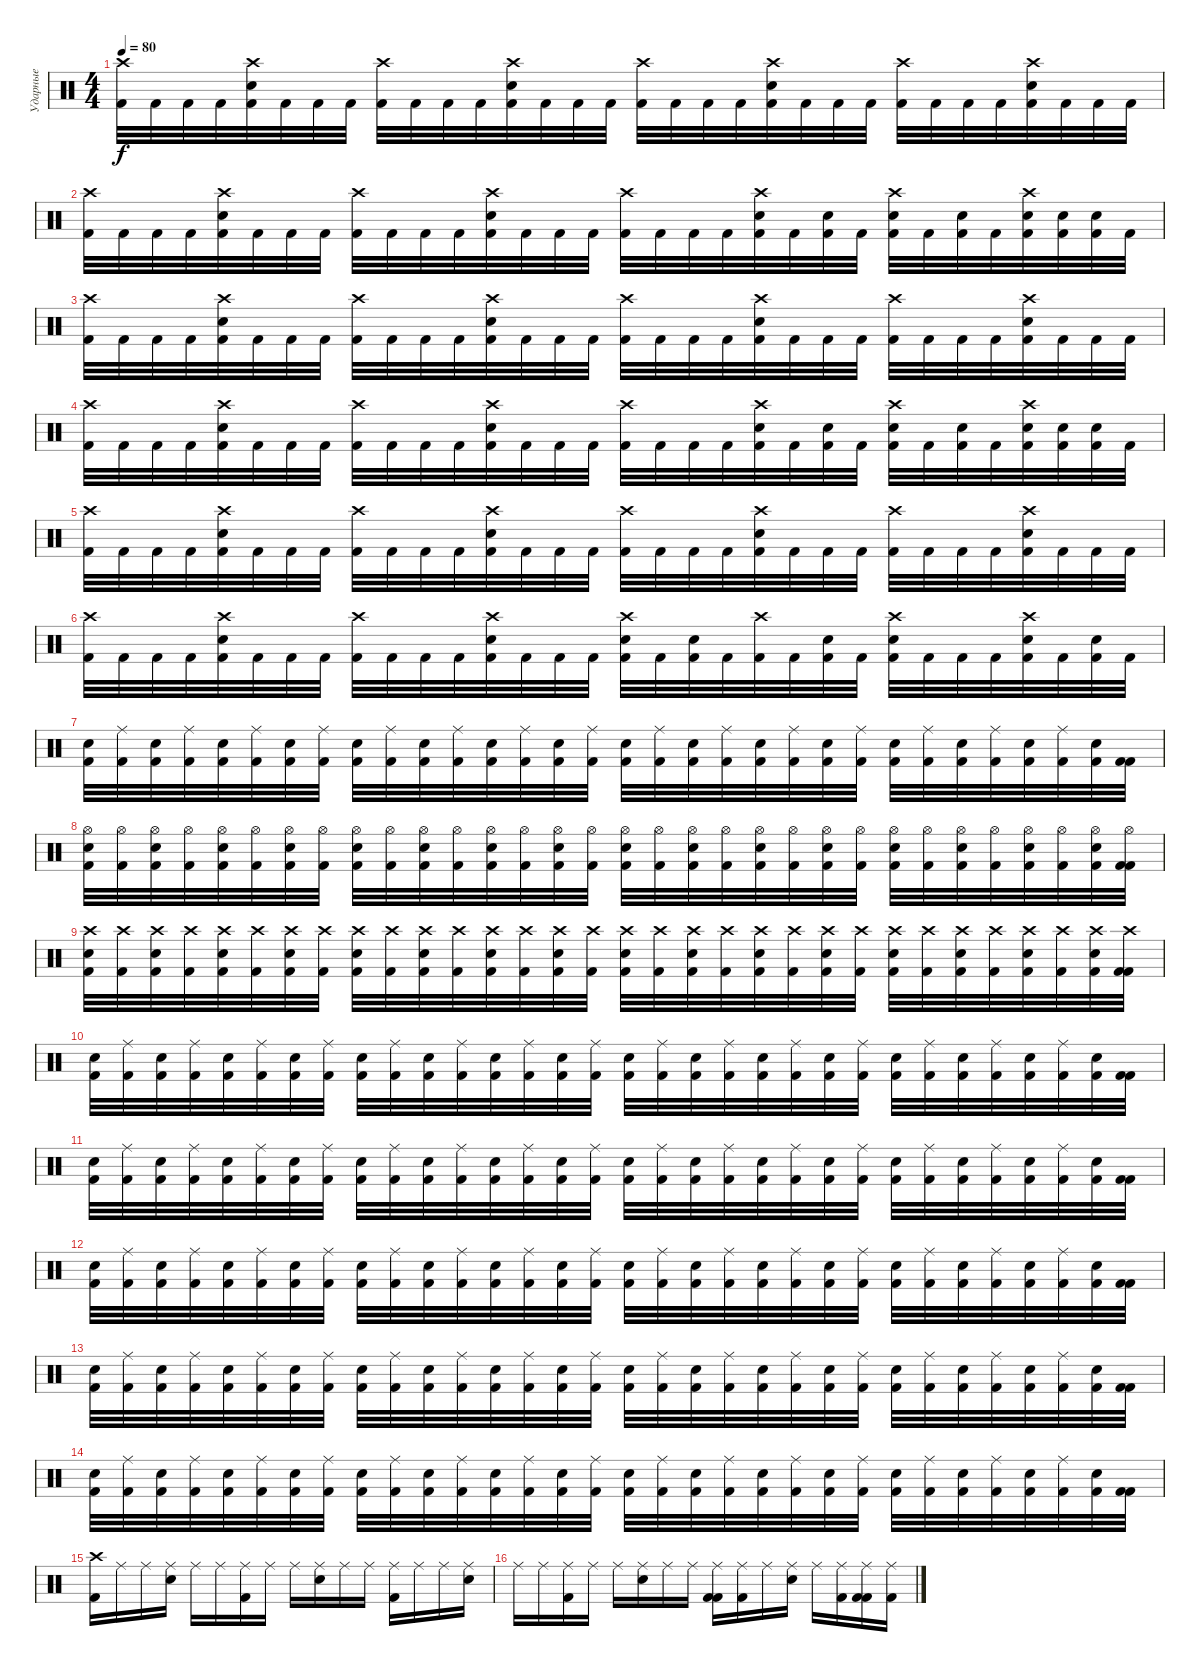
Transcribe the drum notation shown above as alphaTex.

\track ("Ударные" "Ударные") {instrument percussion}
\staff {score}
\articulation defaults
\ts (4 4)
\tempo 80
\clef neutral
\ks c
("Crash high (hit)" "Kick (hit) 2").32{dy f} "Kick (hit) 2".32 "Kick (hit) 2".32 "Kick (hit) 2".32 ("Crash high (hit)" "Snare (hit) 2" "Kick (hit) 2").32 "Kick (hit) 2".32 "Kick (hit) 2".32 "Kick (hit) 2".32 ("Crash high (hit)" "Kick (hit) 2").32 "Kick (hit) 2".32 "Kick (hit) 2".32 "Kick (hit) 2".32 ("Crash high (hit)" "Snare (hit) 2" "Kick (hit) 2").32 "Kick (hit) 2".32 "Kick (hit) 2".32 "Kick (hit) 2".32 ("Crash high (hit)" "Kick (hit) 2").32 "Kick (hit) 2".32 "Kick (hit) 2".32 "Kick (hit) 2".32 ("Crash high (hit)" "Snare (hit) 2" "Kick (hit) 2").32 "Kick (hit) 2".32 "Kick (hit) 2".32 "Kick (hit) 2".32 ("Crash high (hit)" "Kick (hit) 2").32 "Kick (hit) 2".32 "Kick (hit) 2".32 "Kick (hit) 2".32 ("Crash high (hit)" "Snare (hit) 2" "Kick (hit) 2").32 "Kick (hit) 2".32 "Kick (hit) 2".32 "Kick (hit) 2".32 |
("Crash high (hit)" "Kick (hit) 2").32 "Kick (hit) 2".32 "Kick (hit) 2".32 "Kick (hit) 2".32 ("Crash high (hit)" "Snare (hit) 2" "Kick (hit) 2").32 "Kick (hit) 2".32 "Kick (hit) 2".32 "Kick (hit) 2".32 ("Crash high (hit)" "Kick (hit) 2").32 "Kick (hit) 2".32 "Kick (hit) 2".32 "Kick (hit) 2".32 ("Crash high (hit)" "Snare (hit) 2" "Kick (hit) 2").32 "Kick (hit) 2".32 "Kick (hit) 2".32 "Kick (hit) 2".32 ("Crash high (hit)" "Kick (hit) 2").32 "Kick (hit) 2".32 "Kick (hit) 2".32 "Kick (hit) 2".32 ("Crash high (hit)" "Snare (hit) 2" "Kick (hit) 2").32 "Kick (hit) 2".32 ("Snare (hit) 2" "Kick (hit) 2").32 "Kick (hit) 2".32 ("Crash high (hit)" "Snare (hit) 2" "Kick (hit) 2").32 "Kick (hit) 2".32 ("Snare (hit) 2" "Kick (hit) 2").32 "Kick (hit) 2".32 ("Crash high (hit)" "Snare (hit) 2" "Kick (hit) 2").32 ("Snare (hit) 2" "Kick (hit) 2").32 ("Snare (hit) 2" "Kick (hit) 2").32 "Kick (hit) 2".32 |
("Crash high (hit)" "Kick (hit) 2").32 "Kick (hit) 2".32 "Kick (hit) 2".32 "Kick (hit) 2".32 ("Crash high (hit)" "Snare (hit) 2" "Kick (hit) 2").32 "Kick (hit) 2".32 "Kick (hit) 2".32 "Kick (hit) 2".32 ("Crash high (hit)" "Kick (hit) 2").32 "Kick (hit) 2".32 "Kick (hit) 2".32 "Kick (hit) 2".32 ("Crash high (hit)" "Snare (hit) 2" "Kick (hit) 2").32 "Kick (hit) 2".32 "Kick (hit) 2".32 "Kick (hit) 2".32 ("Crash high (hit)" "Kick (hit) 2").32 "Kick (hit) 2".32 "Kick (hit) 2".32 "Kick (hit) 2".32 ("Crash high (hit)" "Snare (hit) 2" "Kick (hit) 2").32 "Kick (hit) 2".32 "Kick (hit) 2".32 "Kick (hit) 2".32 ("Crash high (hit)" "Kick (hit) 2").32 "Kick (hit) 2".32 "Kick (hit) 2".32 "Kick (hit) 2".32 ("Crash high (hit)" "Snare (hit) 2" "Kick (hit) 2").32 "Kick (hit) 2".32 "Kick (hit) 2".32 "Kick (hit) 2".32 |
("Crash high (hit)" "Kick (hit) 2").32 "Kick (hit) 2".32 "Kick (hit) 2".32 "Kick (hit) 2".32 ("Crash high (hit)" "Snare (hit) 2" "Kick (hit) 2").32 "Kick (hit) 2".32 "Kick (hit) 2".32 "Kick (hit) 2".32 ("Crash high (hit)" "Kick (hit) 2").32 "Kick (hit) 2".32 "Kick (hit) 2".32 "Kick (hit) 2".32 ("Crash high (hit)" "Snare (hit) 2" "Kick (hit) 2").32 "Kick (hit) 2".32 "Kick (hit) 2".32 "Kick (hit) 2".32 ("Crash high (hit)" "Kick (hit) 2").32 "Kick (hit) 2".32 "Kick (hit) 2".32 "Kick (hit) 2".32 ("Crash high (hit)" "Snare (hit) 2" "Kick (hit) 2").32 "Kick (hit) 2".32 ("Snare (hit) 2" "Kick (hit) 2").32 "Kick (hit) 2".32 ("Crash high (hit)" "Snare (hit) 2" "Kick (hit) 2").32 "Kick (hit) 2".32 ("Snare (hit) 2" "Kick (hit) 2").32 "Kick (hit) 2".32 ("Crash high (hit)" "Snare (hit) 2" "Kick (hit) 2").32 ("Snare (hit) 2" "Kick (hit) 2").32 ("Snare (hit) 2" "Kick (hit) 2").32 "Kick (hit) 2".32 |
("Crash high (hit)" "Kick (hit) 2").32 "Kick (hit) 2".32 "Kick (hit) 2".32 "Kick (hit) 2".32 ("Crash high (hit)" "Snare (hit) 2" "Kick (hit) 2").32 "Kick (hit) 2".32 "Kick (hit) 2".32 "Kick (hit) 2".32 ("Crash high (hit)" "Kick (hit) 2").32 "Kick (hit) 2".32 "Kick (hit) 2".32 "Kick (hit) 2".32 ("Crash high (hit)" "Snare (hit) 2" "Kick (hit) 2").32 "Kick (hit) 2".32 "Kick (hit) 2".32 "Kick (hit) 2".32 ("Crash high (hit)" "Kick (hit) 2").32 "Kick (hit) 2".32 "Kick (hit) 2".32 "Kick (hit) 2".32 ("Crash high (hit)" "Snare (hit) 2" "Kick (hit) 2").32 "Kick (hit) 2".32 "Kick (hit) 2".32 "Kick (hit) 2".32 ("Crash high (hit)" "Kick (hit) 2").32 "Kick (hit) 2".32 "Kick (hit) 2".32 "Kick (hit) 2".32 ("Crash high (hit)" "Snare (hit) 2" "Kick (hit) 2").32 "Kick (hit) 2".32 "Kick (hit) 2".32 "Kick (hit) 2".32 |
("Crash high (hit)" "Kick (hit) 2").32 "Kick (hit) 2".32 "Kick (hit) 2".32 "Kick (hit) 2".32 ("Crash high (hit)" "Snare (hit) 2" "Kick (hit) 2").32 "Kick (hit) 2".32 "Kick (hit) 2".32 "Kick (hit) 2".32 ("Crash high (hit)" "Kick (hit) 2").32 "Kick (hit) 2".32 "Kick (hit) 2".32 "Kick (hit) 2".32 ("Crash high (hit)" "Snare (hit) 2" "Kick (hit) 2").32 "Kick (hit) 2".32 "Kick (hit) 2".32 "Kick (hit) 2".32 ("Crash high (hit)" "Snare (hit) 2" "Kick (hit) 2").32 "Kick (hit) 2".32 ("Snare (hit) 2" "Kick (hit) 2").32 "Kick (hit) 2".32 ("Crash high (hit)" "Kick (hit) 2").32 "Kick (hit) 2".32 ("Snare (hit) 2" "Kick (hit) 2").32 "Kick (hit) 2".32 ("Crash high (hit)" "Snare (hit) 2" "Kick (hit) 2").32 "Kick (hit) 2".32 "Kick (hit) 2".32 "Kick (hit) 2".32 ("Crash high (hit)" "Snare (hit) 2" "Kick (hit) 2").32 "Kick (hit) 2".32 ("Snare (hit) 2" "Kick (hit) 2").32 "Kick (hit) 2".32 |
("Electric Snare (hit)" "Kick (hit) 2").32 ("Ride (middle)" "Kick (hit) 2").32 ("Electric Snare (hit)" "Kick (hit) 2").32 ("Ride (middle)" "Kick (hit) 2").32 ("Electric Snare (hit)" "Kick (hit) 2").32 ("Ride (middle)" "Kick (hit) 2").32 ("Electric Snare (hit)" "Kick (hit) 2").32 ("Ride (middle)" "Kick (hit) 2").32 ("Electric Snare (hit)" "Kick (hit) 2").32 ("Ride (middle)" "Kick (hit) 2").32 ("Electric Snare (hit)" "Kick (hit) 2").32 ("Ride (middle)" "Kick (hit) 2").32 ("Electric Snare (hit)" "Kick (hit) 2").32 ("Ride (middle)" "Kick (hit) 2").32 ("Electric Snare (hit)" "Kick (hit) 2").32 ("Ride (middle)" "Kick (hit) 2").32 ("Electric Snare (hit)" "Kick (hit) 2").32 ("Ride (middle)" "Kick (hit) 2").32 ("Electric Snare (hit)" "Kick (hit) 2").32 ("Ride (middle)" "Kick (hit) 2").32 ("Electric Snare (hit)" "Kick (hit) 2").32 ("Ride (middle)" "Kick (hit) 2").32 ("Electric Snare (hit)" "Kick (hit) 2").32 ("Ride (middle)" "Kick (hit) 2").32 ("Electric Snare (hit)" "Kick (hit) 2").32 ("Ride (middle)" "Kick (hit) 2").32 ("Electric Snare (hit)" "Kick (hit) 2").32 ("Ride (middle)" "Kick (hit) 2").32 ("Electric Snare (hit)" "Kick (hit) 2").32 ("Ride (middle)" "Kick (hit) 2").32 ("Electric Snare (hit)" "Kick (hit) 2").32 ("Kick (hit) 2" "Kick (hit) 2").32 |
("Hi-Hat (open)" "Electric Snare (hit)" "Kick (hit) 2").32 ("Hi-Hat (open)" "Kick (hit) 2").32 ("Hi-Hat (open)" "Electric Snare (hit)" "Kick (hit) 2").32 ("Hi-Hat (open)" "Kick (hit) 2").32 ("Hi-Hat (open)" "Electric Snare (hit)" "Kick (hit) 2").32 ("Hi-Hat (open)" "Kick (hit) 2").32 ("Hi-Hat (open)" "Electric Snare (hit)" "Kick (hit) 2").32 ("Hi-Hat (open)" "Kick (hit) 2").32 ("Hi-Hat (open)" "Electric Snare (hit)" "Kick (hit) 2").32 ("Hi-Hat (open)" "Kick (hit) 2").32 ("Hi-Hat (open)" "Electric Snare (hit)" "Kick (hit) 2").32 ("Hi-Hat (open)" "Kick (hit) 2").32 ("Hi-Hat (open)" "Electric Snare (hit)" "Kick (hit) 2").32 ("Hi-Hat (open)" "Kick (hit) 2").32 ("Hi-Hat (open)" "Electric Snare (hit)" "Kick (hit) 2").32 ("Hi-Hat (open)" "Kick (hit) 2").32 ("Hi-Hat (open)" "Electric Snare (hit)" "Kick (hit) 2").32 ("Hi-Hat (open)" "Kick (hit) 2").32 ("Hi-Hat (open)" "Electric Snare (hit)" "Kick (hit) 2").32 ("Hi-Hat (open)" "Kick (hit) 2").32 ("Hi-Hat (open)" "Electric Snare (hit)" "Kick (hit) 2").32 ("Hi-Hat (open)" "Kick (hit) 2").32 ("Hi-Hat (open)" "Electric Snare (hit)" "Kick (hit) 2").32 ("Hi-Hat (open)" "Kick (hit) 2").32 ("Hi-Hat (open)" "Electric Snare (hit)" "Kick (hit) 2").32 ("Hi-Hat (open)" "Kick (hit) 2").32 ("Hi-Hat (open)" "Electric Snare (hit)" "Kick (hit) 2").32 ("Hi-Hat (open)" "Kick (hit) 2").32 ("Hi-Hat (open)" "Electric Snare (hit)" "Kick (hit) 2").32 ("Hi-Hat (open)" "Kick (hit) 2").32 ("Hi-Hat (open)" "Electric Snare (hit)" "Kick (hit) 2").32 ("Hi-Hat (open)" "Kick (hit) 2" "Kick (hit) 2").32 |
("Crash high (hit)" "Electric Snare (hit)" "Kick (hit) 2").32 ("Crash high (hit)" "Kick (hit) 2").32 ("Crash high (hit)" "Electric Snare (hit)" "Kick (hit) 2").32 ("Crash high (hit)" "Kick (hit) 2").32 ("Crash high (hit)" "Electric Snare (hit)" "Kick (hit) 2").32 ("Crash high (hit)" "Kick (hit) 2").32 ("Crash high (hit)" "Electric Snare (hit)" "Kick (hit) 2").32 ("Crash high (hit)" "Kick (hit) 2").32 ("Crash high (hit)" "Electric Snare (hit)" "Kick (hit) 2").32 ("Crash high (hit)" "Kick (hit) 2").32 ("Crash high (hit)" "Electric Snare (hit)" "Kick (hit) 2").32 ("Crash high (hit)" "Kick (hit) 2").32 ("Crash high (hit)" "Electric Snare (hit)" "Kick (hit) 2").32 ("Crash high (hit)" "Kick (hit) 2").32 ("Crash high (hit)" "Electric Snare (hit)" "Kick (hit) 2").32 ("Crash high (hit)" "Kick (hit) 2").32 ("Crash high (hit)" "Electric Snare (hit)" "Kick (hit) 2").32 ("Crash high (hit)" "Kick (hit) 2").32 ("Crash high (hit)" "Electric Snare (hit)" "Kick (hit) 2").32 ("Crash high (hit)" "Kick (hit) 2").32 ("Crash high (hit)" "Electric Snare (hit)" "Kick (hit) 2").32 ("Crash high (hit)" "Kick (hit) 2").32 ("Crash high (hit)" "Electric Snare (hit)" "Kick (hit) 2").32 ("Crash high (hit)" "Kick (hit) 2").32 ("Crash high (hit)" "Electric Snare (hit)" "Kick (hit) 2").32 ("Crash high (hit)" "Kick (hit) 2").32 ("Crash high (hit)" "Electric Snare (hit)" "Kick (hit) 2").32 ("Crash high (hit)" "Kick (hit) 2").32 ("Crash high (hit)" "Electric Snare (hit)" "Kick (hit) 2").32 ("Crash high (hit)" "Kick (hit) 2").32 ("Crash high (hit)" "Electric Snare (hit)" "Kick (hit) 2").32 ("Crash high (hit)" "Kick (hit) 2" "Kick (hit) 2").32 |
("Electric Snare (hit)" "Kick (hit) 2").32 ("Ride (middle)" "Kick (hit) 2").32 ("Electric Snare (hit)" "Kick (hit) 2").32 ("Ride (middle)" "Kick (hit) 2").32 ("Electric Snare (hit)" "Kick (hit) 2").32 ("Ride (middle)" "Kick (hit) 2").32 ("Electric Snare (hit)" "Kick (hit) 2").32 ("Ride (middle)" "Kick (hit) 2").32 ("Electric Snare (hit)" "Kick (hit) 2").32 ("Ride (middle)" "Kick (hit) 2").32 ("Electric Snare (hit)" "Kick (hit) 2").32 ("Ride (middle)" "Kick (hit) 2").32 ("Electric Snare (hit)" "Kick (hit) 2").32 ("Ride (middle)" "Kick (hit) 2").32 ("Electric Snare (hit)" "Kick (hit) 2").32 ("Ride (middle)" "Kick (hit) 2").32 ("Electric Snare (hit)" "Kick (hit) 2").32 ("Ride (middle)" "Kick (hit) 2").32 ("Electric Snare (hit)" "Kick (hit) 2").32 ("Ride (middle)" "Kick (hit) 2").32 ("Electric Snare (hit)" "Kick (hit) 2").32 ("Ride (middle)" "Kick (hit) 2").32 ("Electric Snare (hit)" "Kick (hit) 2").32 ("Ride (middle)" "Kick (hit) 2").32 ("Electric Snare (hit)" "Kick (hit) 2").32 ("Ride (middle)" "Kick (hit) 2").32 ("Electric Snare (hit)" "Kick (hit) 2").32 ("Ride (middle)" "Kick (hit) 2").32 ("Electric Snare (hit)" "Kick (hit) 2").32 ("Ride (middle)" "Kick (hit) 2").32 ("Electric Snare (hit)" "Kick (hit) 2").32 ("Kick (hit) 2" "Kick (hit) 2").32 |
("Electric Snare (hit)" "Kick (hit) 2").32 ("Ride (middle)" "Kick (hit) 2").32 ("Electric Snare (hit)" "Kick (hit) 2").32 ("Ride (middle)" "Kick (hit) 2").32 ("Electric Snare (hit)" "Kick (hit) 2").32 ("Ride (middle)" "Kick (hit) 2").32 ("Electric Snare (hit)" "Kick (hit) 2").32 ("Ride (middle)" "Kick (hit) 2").32 ("Electric Snare (hit)" "Kick (hit) 2").32 ("Ride (middle)" "Kick (hit) 2").32 ("Electric Snare (hit)" "Kick (hit) 2").32 ("Ride (middle)" "Kick (hit) 2").32 ("Electric Snare (hit)" "Kick (hit) 2").32 ("Ride (middle)" "Kick (hit) 2").32 ("Electric Snare (hit)" "Kick (hit) 2").32 ("Ride (middle)" "Kick (hit) 2").32 ("Electric Snare (hit)" "Kick (hit) 2").32 ("Ride (middle)" "Kick (hit) 2").32 ("Electric Snare (hit)" "Kick (hit) 2").32 ("Ride (middle)" "Kick (hit) 2").32 ("Electric Snare (hit)" "Kick (hit) 2").32 ("Ride (middle)" "Kick (hit) 2").32 ("Electric Snare (hit)" "Kick (hit) 2").32 ("Ride (middle)" "Kick (hit) 2").32 ("Electric Snare (hit)" "Kick (hit) 2").32 ("Ride (middle)" "Kick (hit) 2").32 ("Electric Snare (hit)" "Kick (hit) 2").32 ("Ride (middle)" "Kick (hit) 2").32 ("Electric Snare (hit)" "Kick (hit) 2").32 ("Ride (middle)" "Kick (hit) 2").32 ("Electric Snare (hit)" "Kick (hit) 2").32 ("Kick (hit) 2" "Kick (hit) 2").32 |
("Electric Snare (hit)" "Kick (hit) 2").32 ("Ride (middle)" "Kick (hit) 2").32 ("Electric Snare (hit)" "Kick (hit) 2").32 ("Ride (middle)" "Kick (hit) 2").32 ("Electric Snare (hit)" "Kick (hit) 2").32 ("Ride (middle)" "Kick (hit) 2").32 ("Electric Snare (hit)" "Kick (hit) 2").32 ("Ride (middle)" "Kick (hit) 2").32 ("Electric Snare (hit)" "Kick (hit) 2").32 ("Ride (middle)" "Kick (hit) 2").32 ("Electric Snare (hit)" "Kick (hit) 2").32 ("Ride (middle)" "Kick (hit) 2").32 ("Electric Snare (hit)" "Kick (hit) 2").32 ("Ride (middle)" "Kick (hit) 2").32 ("Electric Snare (hit)" "Kick (hit) 2").32 ("Ride (middle)" "Kick (hit) 2").32 ("Electric Snare (hit)" "Kick (hit) 2").32 ("Ride (middle)" "Kick (hit) 2").32 ("Electric Snare (hit)" "Kick (hit) 2").32 ("Ride (middle)" "Kick (hit) 2").32 ("Electric Snare (hit)" "Kick (hit) 2").32 ("Ride (middle)" "Kick (hit) 2").32 ("Electric Snare (hit)" "Kick (hit) 2").32 ("Ride (middle)" "Kick (hit) 2").32 ("Electric Snare (hit)" "Kick (hit) 2").32 ("Ride (middle)" "Kick (hit) 2").32 ("Electric Snare (hit)" "Kick (hit) 2").32 ("Ride (middle)" "Kick (hit) 2").32 ("Electric Snare (hit)" "Kick (hit) 2").32 ("Ride (middle)" "Kick (hit) 2").32 ("Electric Snare (hit)" "Kick (hit) 2").32 ("Kick (hit) 2" "Kick (hit) 2").32 |
("Electric Snare (hit)" "Kick (hit) 2").32 ("Ride (middle)" "Kick (hit) 2").32 ("Electric Snare (hit)" "Kick (hit) 2").32 ("Ride (middle)" "Kick (hit) 2").32 ("Electric Snare (hit)" "Kick (hit) 2").32 ("Ride (middle)" "Kick (hit) 2").32 ("Electric Snare (hit)" "Kick (hit) 2").32 ("Ride (middle)" "Kick (hit) 2").32 ("Electric Snare (hit)" "Kick (hit) 2").32 ("Ride (middle)" "Kick (hit) 2").32 ("Electric Snare (hit)" "Kick (hit) 2").32 ("Ride (middle)" "Kick (hit) 2").32 ("Electric Snare (hit)" "Kick (hit) 2").32 ("Ride (middle)" "Kick (hit) 2").32 ("Electric Snare (hit)" "Kick (hit) 2").32 ("Ride (middle)" "Kick (hit) 2").32 ("Electric Snare (hit)" "Kick (hit) 2").32 ("Ride (middle)" "Kick (hit) 2").32 ("Electric Snare (hit)" "Kick (hit) 2").32 ("Ride (middle)" "Kick (hit) 2").32 ("Electric Snare (hit)" "Kick (hit) 2").32 ("Ride (middle)" "Kick (hit) 2").32 ("Electric Snare (hit)" "Kick (hit) 2").32 ("Ride (middle)" "Kick (hit) 2").32 ("Electric Snare (hit)" "Kick (hit) 2").32 ("Ride (middle)" "Kick (hit) 2").32 ("Electric Snare (hit)" "Kick (hit) 2").32 ("Ride (middle)" "Kick (hit) 2").32 ("Electric Snare (hit)" "Kick (hit) 2").32 ("Ride (middle)" "Kick (hit) 2").32 ("Electric Snare (hit)" "Kick (hit) 2").32 ("Kick (hit) 2" "Kick (hit) 2").32 |
("Electric Snare (hit)" "Kick (hit) 2").32 ("Ride (middle)" "Kick (hit) 2").32 ("Electric Snare (hit)" "Kick (hit) 2").32 ("Ride (middle)" "Kick (hit) 2").32 ("Electric Snare (hit)" "Kick (hit) 2").32 ("Ride (middle)" "Kick (hit) 2").32 ("Electric Snare (hit)" "Kick (hit) 2").32 ("Ride (middle)" "Kick (hit) 2").32 ("Electric Snare (hit)" "Kick (hit) 2").32 ("Ride (middle)" "Kick (hit) 2").32 ("Electric Snare (hit)" "Kick (hit) 2").32 ("Ride (middle)" "Kick (hit) 2").32 ("Electric Snare (hit)" "Kick (hit) 2").32 ("Ride (middle)" "Kick (hit) 2").32 ("Electric Snare (hit)" "Kick (hit) 2").32 ("Ride (middle)" "Kick (hit) 2").32 ("Electric Snare (hit)" "Kick (hit) 2").32 ("Ride (middle)" "Kick (hit) 2").32 ("Electric Snare (hit)" "Kick (hit) 2").32 ("Ride (middle)" "Kick (hit) 2").32 ("Electric Snare (hit)" "Kick (hit) 2").32 ("Ride (middle)" "Kick (hit) 2").32 ("Electric Snare (hit)" "Kick (hit) 2").32 ("Ride (middle)" "Kick (hit) 2").32 ("Electric Snare (hit)" "Kick (hit) 2").32 ("Ride (middle)" "Kick (hit) 2").32 ("Electric Snare (hit)" "Kick (hit) 2").32 ("Ride (middle)" "Kick (hit) 2").32 ("Electric Snare (hit)" "Kick (hit) 2").32 ("Ride (middle)" "Kick (hit) 2").32 ("Electric Snare (hit)" "Kick (hit) 2").32 ("Kick (hit) 2" "Kick (hit) 2").32 |
("Kick (hit) 2" "Crash high (hit)").16 "Ride (middle)".16 "Ride (middle)".16 ("Snare (hit) 2" "Ride (middle)").16 "Ride (middle)".16 "Ride (middle)".16 ("Kick (hit) 2" "Ride (middle)").16 "Ride (middle)".16 "Ride (middle)".16 ("Snare (hit) 2" "Ride (middle)").16 "Ride (middle)".16 "Ride (middle)".16 ("Kick (hit) 2" "Ride (middle)").16 "Ride (middle)".16 "Ride (middle)".16 ("Snare (hit) 2" "Ride (middle)").16 |
"Ride (middle)".16 "Ride (middle)".16 ("Kick (hit) 2" "Ride (middle)").16 "Ride (middle)".16 "Ride (middle)".16 ("Snare (hit) 2" "Ride (middle)").16 "Ride (middle)".16 "Ride (middle)".16 ("Kick (hit) 2" "Kick (hit) 2" "Ride (middle)").16 ("Kick (hit) 2" "Ride (middle)").16 "Ride (middle)".16 ("Snare (hit) 2" "Ride (middle)").16 "Ride (middle)".16 ("Kick (hit) 2" "Ride (middle)").16 ("Kick (hit) 2" "Kick (hit) 2" "Ride (middle)").16 ("Kick (hit) 2" "Ride (middle)").16
